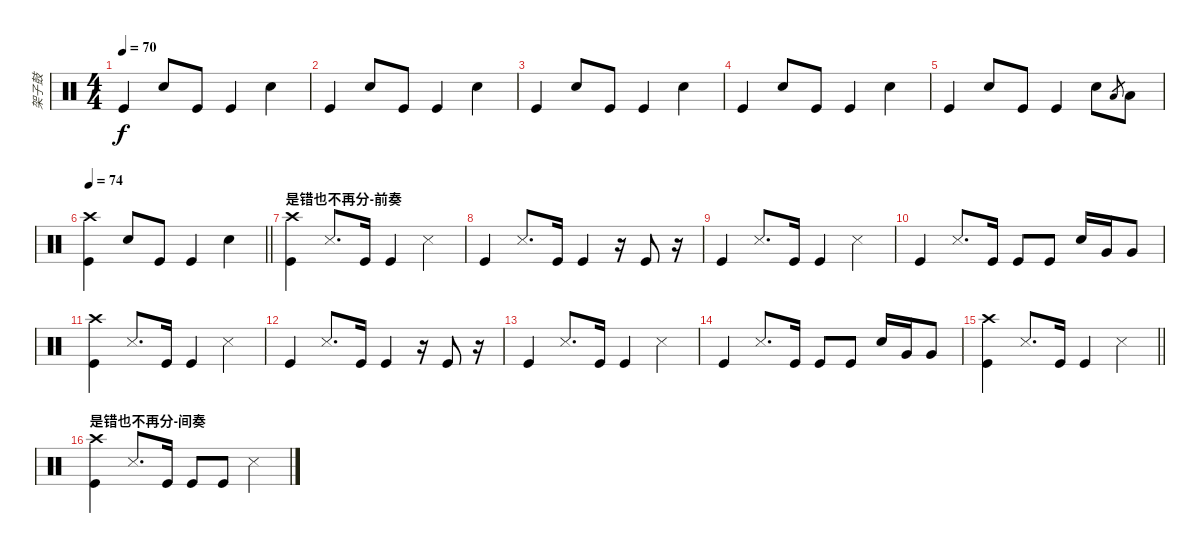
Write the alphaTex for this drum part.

\track ("架子鼓" "架子鼓") {instrument percussion}
\staff {score}
\articulation defaults
\ts (4 4)
\tempo 70
\clef neutral
\ks c "Kick (hit)".4{dy f} "Electric Snare (hit)".8 "Kick (hit)".8 "Kick (hit)".4 "Electric Snare (hit)".4
|
"Kick (hit)".4 "Electric Snare (hit)".8 "Kick (hit)".8 "Kick (hit)".4 "Electric Snare (hit)".4 |
"Kick (hit)".4 "Electric Snare (hit)".8 "Kick (hit)".8 "Kick (hit)".4 "Electric Snare (hit)".4 |
"Kick (hit)".4 "Electric Snare (hit)".8 "Kick (hit)".8 "Kick (hit)".4 "Electric Snare (hit)".4 |
"Kick (hit)".4 "Electric Snare (hit)".8 "Kick (hit)".8 "Kick (hit)".4 "Electric Snare (hit)".8 "Low Tom (hit)".8{gr} "Low Tom (hit)".8 |
\tempo 74
\barLineRight lightlight
("Crash high (hit)" "Kick (hit)").4 "Electric Snare (hit)".8 "Kick (hit)".8 "Kick (hit)".4 "Electric Snare (hit)".4 |
\section ("" "是错也不再分-前奏")
("Crash high (hit)" "Kick (hit)").4 "Snare (side stick) 3".8{d} "Kick (hit)".16 "Kick (hit)".4 "Snare (side stick) 3".4 |
"Kick (hit)".4 "Snare (side stick) 3".8{d} "Kick (hit)".16 "Kick (hit)".4 r.16 "Kick (hit)".8 r.16 |
"Kick (hit)".4 "Snare (side stick) 3".8{d} "Kick (hit)".16 "Kick (hit)".4 "Snare (side stick) 3".4 |
"Kick (hit)".4 "Snare (side stick) 3".8{d} "Kick (hit)".16 "Kick (hit)".8 "Kick (hit)".8 "Electric Snare (hit)".16 "Very Low Tom (hit)".16 "Very Low Tom (hit)".8 |
("Crash high (hit)" "Kick (hit)").4 "Snare (side stick) 3".8{d} "Kick (hit)".16 "Kick (hit)".4 "Snare (side stick) 3".4 |
"Kick (hit)".4 "Snare (side stick) 3".8{d} "Kick (hit)".16 "Kick (hit)".4 r.16 "Kick (hit)".8 r.16 |
"Kick (hit)".4 "Snare (side stick) 3".8{d} "Kick (hit)".16 "Kick (hit)".4 "Snare (side stick) 3".4 |
"Kick (hit)".4 "Snare (side stick) 3".8{d} "Kick (hit)".16 "Kick (hit)".8 "Kick (hit)".8 "Electric Snare (hit)".16 "Very Low Tom (hit)".16 "Very Low Tom (hit)".8 |
\barLineRight lightlight
("Crash high (hit)" "Kick (hit)").4 "Snare (side stick) 3".8{d} "Kick (hit)".16 "Kick (hit)".4 "Snare (side stick) 3".4 |
\section ("" "是错也不再分-间奏")
("Crash high (hit)" "Kick (hit)").4 "Snare (side stick) 3".8{d} "Kick (hit)".16 "Kick (hit)".8 "Kick (hit)".8 "Snare (side stick) 3".4
